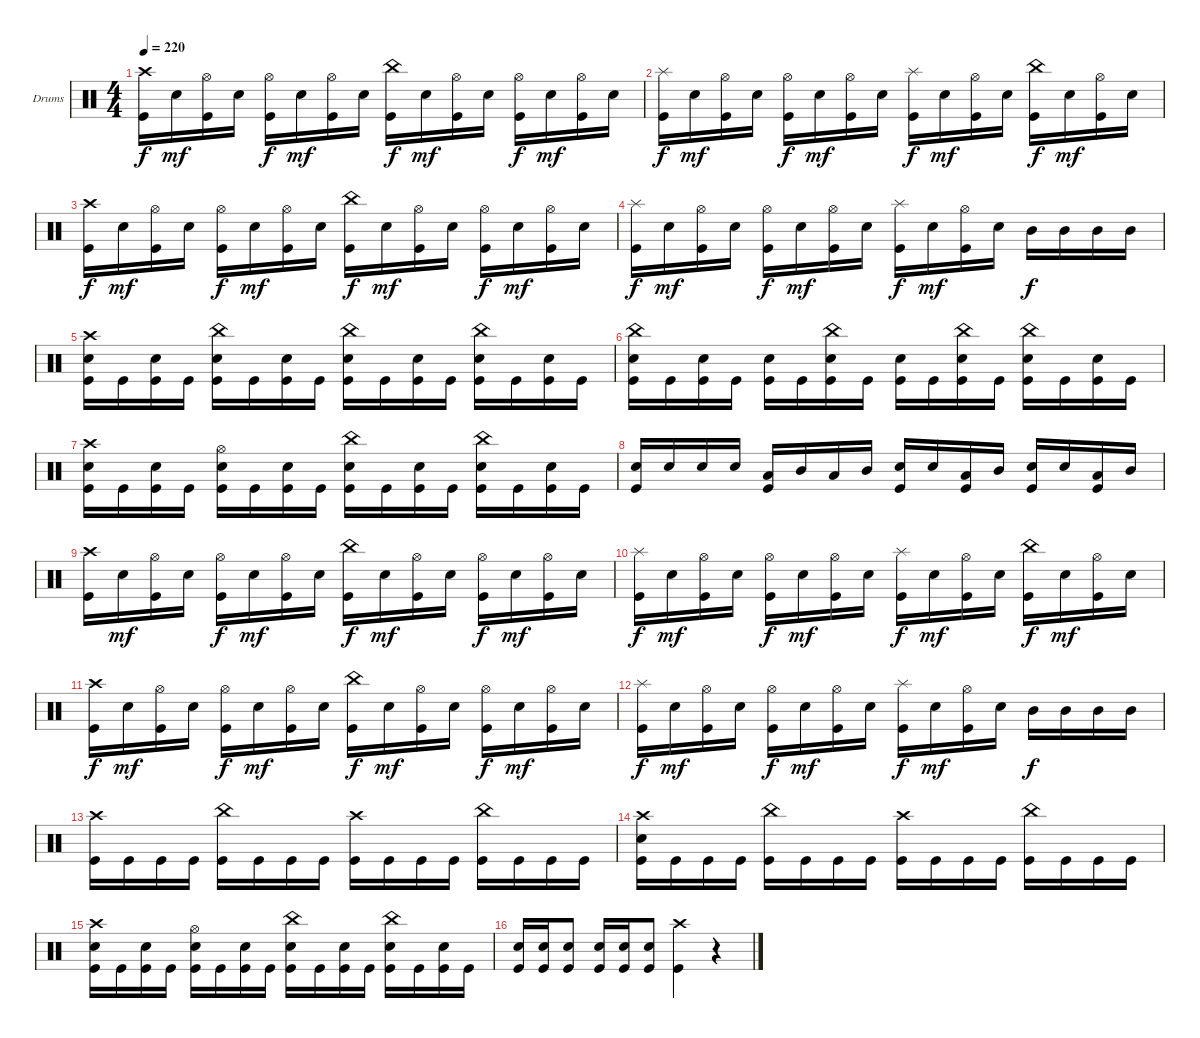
\defaultSystemsLayout 4
\bracketExtendMode groupsimilarinstruments
\firstSystemTrackNameOrientation horizontal
\otherSystemsTrackNameOrientation horizontal
\track ("Drumkit" "Drums") {instrument percussion}
\staff {score}
\articulation defaults
\ts (4 4)
\tempo 220
\clef neutral
\scale
0.333333
\ks c
("Crash high (hit)" "Kick (hit)").16{dy f} "Snare (hit) 2".16{dy mf} ("Hi-Hat (open)" "Kick (hit)").16 "Snare (hit) 2".16 ("Hi-Hat (open)" "Kick (hit)").16{dy f} "Snare (hit) 2".16{dy mf} ("Hi-Hat (open)" "Kick (hit)").16 "Snare (hit) 2".16 ("China (hit)" "Kick (hit)").16{dy f} "Snare (hit) 2".16{dy mf} ("Hi-Hat (open)" "Kick (hit)").16 "Snare (hit) 2".16 ("Hi-Hat (open)" "Kick (hit)").16{dy f} "Snare (hit) 2".16{dy mf} ("Hi-Hat (open)" "Kick (hit)").16 "Snare (hit) 2".16 |
\scale
0.333333 ("Splash (hit)" "Kick (hit)").16{dy f} "Snare (hit) 2".16{dy mf} ("Hi-Hat (open)" "Kick (hit)").16 "Snare (hit) 2".16 ("Hi-Hat (open)" "Kick (hit)").16{dy f} "Snare (hit) 2".16{dy mf} ("Hi-Hat (open)" "Kick (hit)").16 "Snare (hit) 2".16 ("Splash (hit)" "Kick (hit)").16{dy f} "Snare (hit) 2".16{dy mf} ("Hi-Hat (open)" "Kick (hit)").16 "Snare (hit) 2".16 ("China (hit)" "Kick (hit)").16{dy f} "Snare (hit) 2".16{dy mf} ("Hi-Hat (open)" "Kick (hit)").16 "Snare (hit) 2".16 |
\scale
0.333333 ("Crash high (hit)" "Kick (hit)").16{dy f} "Snare (hit) 2".16{dy mf} ("Hi-Hat (open)" "Kick (hit)").16 "Snare (hit) 2".16 ("Hi-Hat (open)" "Kick (hit)").16{dy f} "Snare (hit) 2".16{dy mf} ("Hi-Hat (open)" "Kick (hit)").16 "Snare (hit) 2".16 ("China (hit)" "Kick (hit)").16{dy f} "Snare (hit) 2".16{dy mf} ("Hi-Hat (open)" "Kick (hit)").16 "Snare (hit) 2".16 ("Hi-Hat (open)" "Kick (hit)").16{dy f} "Snare (hit) 2".16{dy mf} ("Hi-Hat (open)" "Kick (hit)").16 "Snare (hit) 2".16 |
\scale
0.333333 ("Splash (hit)" "Kick (hit)").16{dy f} "Snare (hit) 2".16{dy mf} ("Hi-Hat (open)" "Kick (hit)").16 "Snare (hit) 2".16 ("Hi-Hat (open)" "Kick (hit)").16{dy f} "Snare (hit) 2".16{dy mf} ("Hi-Hat (open)" "Kick (hit)").16 "Snare (hit) 2".16 ("Splash (hit)" "Kick (hit)").16{dy f} "Snare (hit) 2".16{dy mf} ("Hi-Hat (open)" "Kick (hit)").16 "Snare (hit) 2".16 "Mid Tom (hit)".16{dy f} "Mid Tom (hit)".16 "Mid Tom (hit)".16 "Mid Tom (hit)".16 |
\scale
0.333333 ("Crash high (hit)" "Snare (hit) 2" "Kick (hit)").16 "Kick (hit)".16 ("Snare (hit) 2" "Kick (hit)").16 "Kick (hit)".16 ("China (hit)" "Snare (hit) 2" "Kick (hit)").16 "Kick (hit)".16 ("Snare (hit) 2" "Kick (hit)").16 "Kick (hit)".16 ("China (hit)" "Snare (hit) 2" "Kick (hit)").16 "Kick (hit)".16 ("Snare (hit) 2" "Kick (hit)").16 "Kick (hit)".16 ("China (hit)" "Snare (hit) 2" "Kick (hit)").16 "Kick (hit)".16 ("Snare (hit) 2" "Kick (hit)").16 "Kick (hit)".16 |
\scale
0.333333 ("China (hit)" "Snare (hit) 2" "Kick (hit)").16 "Kick (hit)".16 ("Snare (hit) 2" "Kick (hit)").16 "Kick (hit)".16 ("Snare (hit) 2" "Kick (hit)").16 "Kick (hit)".16 ("China (hit)" "Snare (hit) 2" "Kick (hit)").16 "Kick (hit)".16 ("Snare (hit) 2" "Kick (hit)").16 "Kick (hit)".16 ("China (hit)" "Snare (hit) 2" "Kick (hit)").16 "Kick (hit)".16 ("China (hit)" "Snare (hit) 2" "Kick (hit)").16 "Kick (hit)".16 ("Snare (hit) 2" "Kick (hit)").16 "Kick (hit)".16 |
\scale
0.333333 ("Crash high (hit)" "Snare (hit) 2" "Kick (hit)").16 "Kick (hit)".16 ("Snare (hit) 2" "Kick (hit)").16 "Kick (hit)".16 ("Hi-Hat (open)" "Snare (hit) 2" "Kick (hit)").16 "Kick (hit)".16 ("Snare (hit) 2" "Kick (hit)").16 "Kick (hit)".16 ("China (hit)" "Snare (hit) 2" "Kick (hit)").16 "Kick (hit)".16 ("Snare (hit) 2" "Kick (hit)").16 "Kick (hit)".16 ("China (hit)" "Snare (hit) 2" "Kick (hit)").16 "Kick (hit)".16 ("Snare (hit) 2" "Kick (hit)").16 "Kick (hit)".16 |
\scale
0.333333 ("Snare (hit) 2" "Kick (hit)").16 "Snare (hit) 2".16 "Snare (hit) 2".16 "Snare (hit) 2".16 ("Low Tom (hit)" "Kick (hit)").16 "Mid Tom (hit)".16 "Low Tom (hit)".16 "Mid Tom (hit)".16 ("Snare (hit) 2" "Kick (hit)").16 "Snare (hit) 2".16 ("Low Tom (hit)" "Kick (hit)").16 "Mid Tom (hit)".16 ("Snare (hit) 2" "Kick (hit)").16 "Snare (hit) 2".16 ("Low Tom (hit)" "Kick (hit)").16 "Mid Tom (hit)".16 |
\scale
0.333333 ("Crash high (hit)" "Kick (hit)").16 "Snare (hit) 2".16{dy mf} ("Hi-Hat (open)" "Kick (hit)").16 "Snare (hit) 2".16 ("Hi-Hat (open)" "Kick (hit)").16{dy f} "Snare (hit) 2".16{dy mf} ("Hi-Hat (open)" "Kick (hit)").16 "Snare (hit) 2".16 ("China (hit)" "Kick (hit)").16{dy f} "Snare (hit) 2".16{dy mf} ("Hi-Hat (open)" "Kick (hit)").16 "Snare (hit) 2".16 ("Hi-Hat (open)" "Kick (hit)").16{dy f} "Snare (hit) 2".16{dy mf} ("Hi-Hat (open)" "Kick (hit)").16 "Snare (hit) 2".16 |
\scale
0.333333 ("Splash (hit)" "Kick (hit)").16{dy f} "Snare (hit) 2".16{dy mf} ("Hi-Hat (open)" "Kick (hit)").16 "Snare (hit) 2".16 ("Hi-Hat (open)" "Kick (hit)").16{dy f} "Snare (hit) 2".16{dy mf} ("Hi-Hat (open)" "Kick (hit)").16 "Snare (hit) 2".16 ("Splash (hit)" "Kick (hit)").16{dy f} "Snare (hit) 2".16{dy mf} ("Hi-Hat (open)" "Kick (hit)").16 "Snare (hit) 2".16 ("China (hit)" "Kick (hit)").16{dy f} "Snare (hit) 2".16{dy mf} ("Hi-Hat (open)" "Kick (hit)").16 "Snare (hit) 2".16 |
\scale
0.333333 ("Crash high (hit)" "Kick (hit)").16{dy f} "Snare (hit) 2".16{dy mf} ("Hi-Hat (open)" "Kick (hit)").16 "Snare (hit) 2".16 ("Hi-Hat (open)" "Kick (hit)").16{dy f} "Snare (hit) 2".16{dy mf} ("Hi-Hat (open)" "Kick (hit)").16 "Snare (hit) 2".16 ("China (hit)" "Kick (hit)").16{dy f} "Snare (hit) 2".16{dy mf} ("Hi-Hat (open)" "Kick (hit)").16 "Snare (hit) 2".16 ("Hi-Hat (open)" "Kick (hit)").16{dy f} "Snare (hit) 2".16{dy mf} ("Hi-Hat (open)" "Kick (hit)").16 "Snare (hit) 2".16 |
\scale
0.333333 ("Splash (hit)" "Kick (hit)").16{dy f} "Snare (hit) 2".16{dy mf} ("Hi-Hat (open)" "Kick (hit)").16 "Snare (hit) 2".16 ("Hi-Hat (open)" "Kick (hit)").16{dy f} "Snare (hit) 2".16{dy mf} ("Hi-Hat (open)" "Kick (hit)").16 "Snare (hit) 2".16 ("Splash (hit)" "Kick (hit)").16{dy f} "Snare (hit) 2".16{dy mf} ("Hi-Hat (open)" "Kick (hit)").16 "Snare (hit) 2".16 "Mid Tom (hit)".16{dy f} "Mid Tom (hit)".16 "Mid Tom (hit)".16 "Mid Tom (hit)".16 |
\scale
0.333333 ("Crash high (hit)" "Kick (hit)").16 "Kick (hit)".16 "Kick (hit)".16 "Kick (hit)".16 ("China (hit)" "Kick (hit)").16 "Kick (hit)".16 "Kick (hit)".16 "Kick (hit)".16 ("Crash high (hit)" "Kick (hit)").16 "Kick (hit)".16 "Kick (hit)".16 "Kick (hit)".16 ("China (hit)" "Kick (hit)").16 "Kick (hit)".16 "Kick (hit)".16 "Kick (hit)".16 |
\scale
0.333333 ("Crash high (hit)" "Snare (hit) 2" "Kick (hit)").16 "Kick (hit)".16 "Kick (hit)".16 "Kick (hit)".16 ("China (hit)" "Kick (hit)").16 "Kick (hit)".16 "Kick (hit)".16 "Kick (hit)".16 ("Crash high (hit)" "Kick (hit)").16 "Kick (hit)".16 "Kick (hit)".16 "Kick (hit)".16 ("China (hit)" "Kick (hit)").16 "Kick (hit)".16 "Kick (hit)".16 "Kick (hit)".16 |
\scale
0.333333 ("Crash high (hit)" "Snare (hit) 2" "Kick (hit)").16 "Kick (hit)".16 ("Snare (hit) 2" "Kick (hit)").16 "Kick (hit)".16 ("Hi-Hat (open)" "Snare (hit) 2" "Kick (hit)").16 "Kick (hit)".16 ("Snare (hit) 2" "Kick (hit)").16 "Kick (hit)".16 ("China (hit)" "Snare (hit) 2" "Kick (hit)").16 "Kick (hit)".16 ("Snare (hit) 2" "Kick (hit)").16 "Kick (hit)".16 ("China (hit)" "Snare (hit) 2" "Kick (hit)").16 "Kick (hit)".16 ("Snare (hit) 2" "Kick (hit)").16 "Kick (hit)".16 |
\scale
0.333333 ("Snare (hit) 2" "Kick (hit)").16 ("Snare (hit) 2" "Kick (hit)").16 ("Snare (hit) 2" "Kick (hit)").8 ("Snare (hit) 2" "Kick (hit)").16 ("Snare (hit) 2" "Kick (hit)").16 ("Snare (hit) 2" "Kick (hit)").8 ("Crash high (hit)" "Kick (hit)").4 r.4
